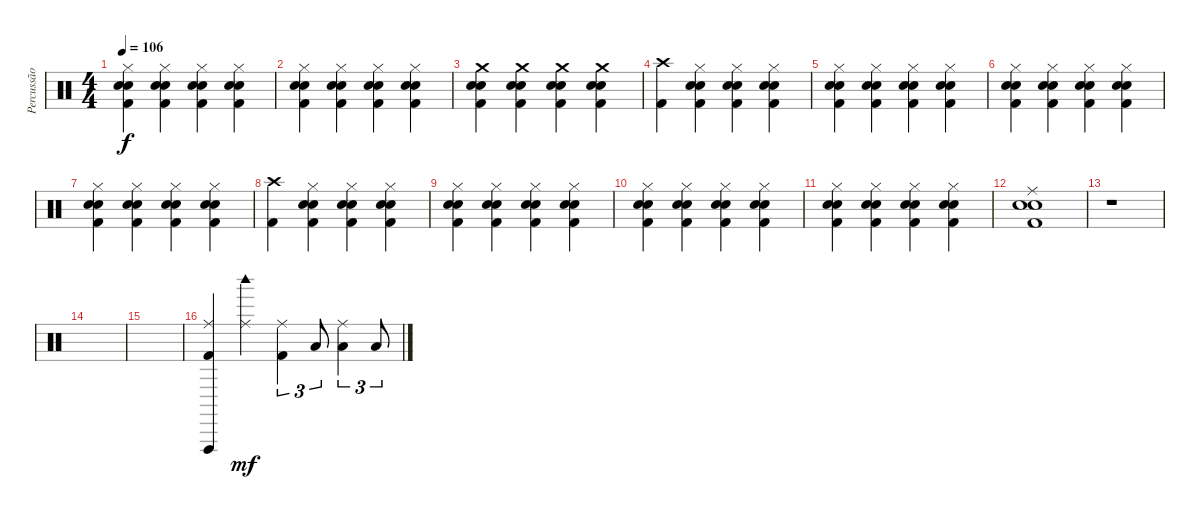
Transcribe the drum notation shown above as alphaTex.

\track ("Percussão" "Percussão") {instrument percussion}
\staff {score}
\articulation defaults
\ts (4 4)
\tempo 106
\clef neutral
\ks c
("Hi-Hat (closed)" "Snare (hit) 2" "Snare (hit) 2" "Kick (hit) 2").4{dy f} ("Hi-Hat (closed)" "Snare (hit) 2" "Snare (hit) 2" "Kick (hit) 2").4 ("Hi-Hat (closed)" "Snare (hit) 2" "Snare (hit) 2" "Kick (hit) 2").4 ("Hi-Hat (closed)" "Snare (hit) 2" "Snare (hit) 2" "Kick (hit) 2").4 |
("Hi-Hat (closed)" "Snare (hit) 2" "Snare (hit) 2" "Kick (hit) 2").4 ("Hi-Hat (closed)" "Snare (hit) 2" "Snare (hit) 2" "Kick (hit) 2").4 ("Hi-Hat (closed)" "Snare (hit) 2" "Snare (hit) 2" "Kick (hit) 2").4 ("Hi-Hat (closed)" "Snare (hit) 2" "Snare (hit) 2" "Kick (hit) 2").4 |
("Crash medium (hit)" "Snare (hit) 2" "Snare (hit) 2" "Kick (hit) 2").4 ("Crash medium (hit)" "Snare (hit) 2" "Snare (hit) 2" "Kick (hit) 2").4 ("Crash medium (hit)" "Snare (hit) 2" "Snare (hit) 2" "Kick (hit) 2").4 ("Crash medium (hit)" "Snare (hit) 2" "Snare (hit) 2" "Kick (hit) 2").4 |
("Crash high (hit)" "Kick (hit) 2").4 ("Hi-Hat (closed)" "Snare (hit) 2" "Snare (hit) 2" "Kick (hit) 2").4 ("Hi-Hat (closed)" "Snare (hit) 2" "Snare (hit) 2" "Kick (hit) 2").4 ("Hi-Hat (closed)" "Snare (hit) 2" "Snare (hit) 2" "Kick (hit) 2").4 |
("Hi-Hat (closed)" "Snare (hit) 2" "Snare (hit) 2" "Kick (hit) 2").4 ("Hi-Hat (closed)" "Snare (hit) 2" "Snare (hit) 2" "Kick (hit) 2").4 ("Hi-Hat (closed)" "Snare (hit) 2" "Snare (hit) 2" "Kick (hit) 2").4 ("Hi-Hat (closed)" "Snare (hit) 2" "Snare (hit) 2" "Kick (hit) 2").4 |
("Hi-Hat (closed)" "Snare (hit) 2" "Snare (hit) 2" "Kick (hit) 2").4 ("Hi-Hat (closed)" "Snare (hit) 2" "Snare (hit) 2" "Kick (hit) 2").4 ("Hi-Hat (closed)" "Snare (hit) 2" "Snare (hit) 2" "Kick (hit) 2").4 ("Hi-Hat (closed)" "Snare (hit) 2" "Snare (hit) 2" "Kick (hit) 2").4 |
("Hi-Hat (closed)" "Snare (hit) 2" "Snare (hit) 2" "Kick (hit) 2").4 ("Hi-Hat (closed)" "Snare (hit) 2" "Snare (hit) 2" "Kick (hit) 2").4 ("Hi-Hat (closed)" "Snare (hit) 2" "Snare (hit) 2" "Kick (hit) 2").4 ("Hi-Hat (closed)" "Snare (hit) 2" "Snare (hit) 2" "Kick (hit) 2").4 |
("Crash high (hit)" "Kick (hit) 2").4 ("Hi-Hat (closed)" "Snare (hit) 2" "Snare (hit) 2" "Kick (hit) 2").4 ("Hi-Hat (closed)" "Snare (hit) 2" "Snare (hit) 2" "Kick (hit) 2").4 ("Hi-Hat (closed)" "Snare (hit) 2" "Snare (hit) 2" "Kick (hit) 2").4 |
("Hi-Hat (closed)" "Snare (hit) 2" "Snare (hit) 2" "Kick (hit) 2").4 ("Hi-Hat (closed)" "Snare (hit) 2" "Snare (hit) 2" "Kick (hit) 2").4 ("Hi-Hat (closed)" "Snare (hit) 2" "Snare (hit) 2" "Kick (hit) 2").4 ("Hi-Hat (closed)" "Snare (hit) 2" "Snare (hit) 2" "Kick (hit) 2").4 |
("Hi-Hat (closed)" "Snare (hit) 2" "Snare (hit) 2" "Kick (hit) 2").4 ("Hi-Hat (closed)" "Snare (hit) 2" "Snare (hit) 2" "Kick (hit) 2").4 ("Hi-Hat (closed)" "Snare (hit) 2" "Snare (hit) 2" "Kick (hit) 2").4 ("Hi-Hat (closed)" "Snare (hit) 2" "Snare (hit) 2" "Kick (hit) 2").4 |
("Hi-Hat (closed)" "Snare (hit) 2" "Snare (hit) 2" "Kick (hit) 2").4 ("Hi-Hat (closed)" "Snare (hit) 2" "Snare (hit) 2" "Kick (hit) 2").4 ("Hi-Hat (closed)" "Snare (hit) 2" "Snare (hit) 2" "Kick (hit) 2").4 ("Hi-Hat (closed)" "Snare (hit) 2" "Snare (hit) 2" "Kick (hit) 2").4 |
("Ride (middle)" "Snare (hit) 2" "Snare (hit) 2" "Kick (hit) 2").1 |
r.1 |
|
|
("Ride (middle)" "Vibraslap (hit)" "Kick (hit) 2").4 ("Ride (middle)" "Woodblock high (hit)").4{dy mf} ("Ride (middle)" "Kick (hit) 2").4{tu (3 2)} "Low Floor Tom (hit)".8{tu (3 2)} ("Ride (middle)" "Low Floor Tom (hit)").4{tu (3 2)} "Low Floor Tom (hit)".8{tu (3 2)}
